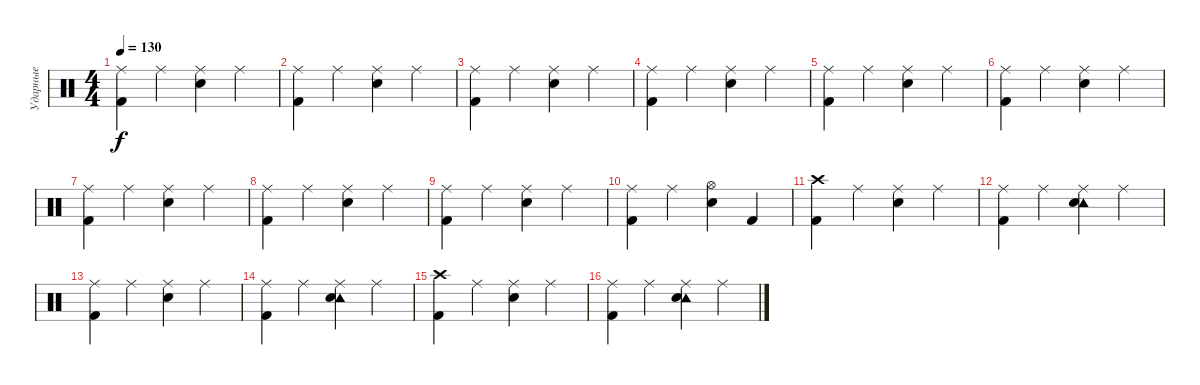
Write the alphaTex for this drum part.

\track ("Ударные" "Ударные") {instrument percussion}
\staff {score}
\articulation defaults
\ts (4 4)
\tempo 130
\clef neutral
\ks c
("Ride (middle)" "Kick (hit) 2").4{dy f} "Ride (middle)".4 ("Ride (middle)" "Electric Snare (hit)").4 "Ride (middle)".4 |
("Ride (middle)" "Kick (hit) 2").4 "Ride (middle)".4 ("Ride (middle)" "Electric Snare (hit)").4 "Ride (middle)".4 |
("Ride (middle)" "Kick (hit) 2").4 "Ride (middle)".4 ("Ride (middle)" "Electric Snare (hit)").4 "Ride (middle)".4 |
("Ride (middle)" "Kick (hit) 2").4 "Ride (middle)".4 ("Ride (middle)" "Electric Snare (hit)").4 "Ride (middle)".4 |
("Ride (middle)" "Kick (hit) 2").4 "Ride (middle)".4 ("Ride (middle)" "Electric Snare (hit)").4 "Ride (middle)".4 |
("Ride (middle)" "Kick (hit) 2").4 "Ride (middle)".4 ("Ride (middle)" "Electric Snare (hit)").4 "Ride (middle)".4 |
("Ride (middle)" "Kick (hit) 2").4 "Ride (middle)".4 ("Ride (middle)" "Electric Snare (hit)").4 "Ride (middle)".4 |
("Ride (middle)" "Kick (hit) 2").4 "Ride (middle)".4 ("Ride (middle)" "Electric Snare (hit)").4 "Ride (middle)".4 |
("Ride (middle)" "Kick (hit) 2").4 "Ride (middle)".4 ("Ride (middle)" "Electric Snare (hit)").4 "Ride (middle)".4 |
("Ride (middle)" "Kick (hit) 2").4 "Ride (middle)".4 ("Hi-Hat (open)" "Electric Snare (hit)").4 "Kick (hit) 2".4 |
("Crash high (hit)" "Kick (hit) 2").4 "Ride (middle)".4 ("Ride (middle)" "Electric Snare (hit)").4 "Ride (middle)".4 |
("Ride (middle)" "Kick (hit) 2").4 "Ride (middle)".4 ("Tambourine (hit)" "Ride (middle)" "Electric Snare (hit)").4 "Ride (middle)".4 |
("Ride (middle)" "Kick (hit) 2").4 "Ride (middle)".4 ("Ride (middle)" "Electric Snare (hit)").4 "Ride (middle)".4 |
("Ride (middle)" "Kick (hit) 2").4 "Ride (middle)".4 ("Tambourine (hit)" "Ride (middle)" "Electric Snare (hit)").4 "Ride (middle)".4 |
("Crash high (hit)" "Kick (hit) 2").4 "Ride (middle)".4 ("Ride (middle)" "Electric Snare (hit)").4 "Ride (middle)".4 |
("Ride (middle)" "Kick (hit) 2").4 "Ride (middle)".4 ("Tambourine (hit)" "Ride (middle)" "Electric Snare (hit)").4 "Ride (middle)".4
